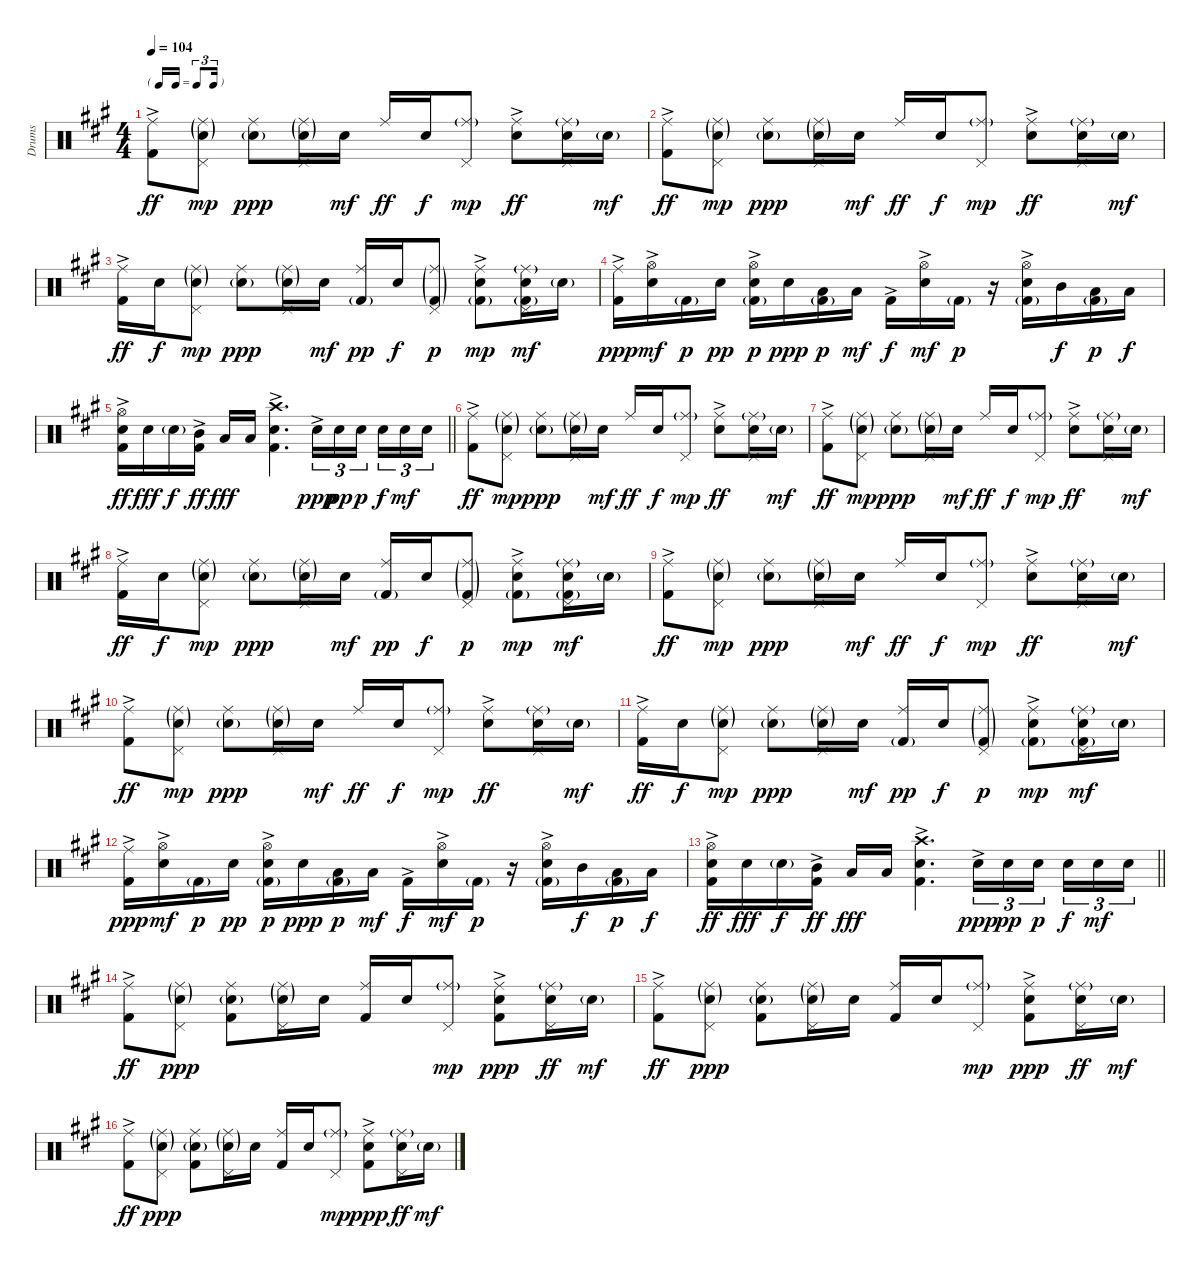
\track ("Drums" "Drums") {instrument percussion}
\staff {score}
\articulation defaults
\ts (4 4)
\tf triplet16th
\tempo 104
\clef neutral
\ks a
("Ride (middle)" "Kick (hit) 2"{ac}).8{dy ff} ("Ride (middle)"{g} "Pedal Hi-Hat (hit)" "Snare (hit) 2"{g}).8{dy mp} ("Ride (middle)" "Snare (hit) 2"{g}).8{dy ppp} ("Ride (middle)"{g} "Pedal Hi-Hat (hit)" "Snare (hit) 2"{g}).16 "Snare (hit) 2".16{dy mf} "Ride (middle)".16{dy ff} "Snare (hit) 2".16{dy f} ("Ride (middle)"{g} "Pedal Hi-Hat (hit)").8{dy mp} ("Ride (middle)" "Snare (hit) 2"{ac}).8{dy ff} ("Ride (middle)"{g} "Pedal Hi-Hat (hit)" "Snare (hit) 2").16 "Snare (hit) 2"{g}.16{dy mf} |
("Ride (middle)" "Kick (hit) 2"{ac}).8{dy ff} ("Ride (middle)"{g} "Pedal Hi-Hat (hit)" "Snare (hit) 2"{g}).8{dy mp} ("Ride (middle)" "Snare (hit) 2"{g}).8{dy ppp} ("Ride (middle)"{g} "Pedal Hi-Hat (hit)" "Snare (hit) 2"{g}).16 "Snare (hit) 2".16{dy mf} "Ride (middle)".16{dy ff} "Snare (hit) 2".16{dy f} ("Ride (middle)"{g} "Pedal Hi-Hat (hit)").8{dy mp} ("Ride (middle)" "Snare (hit) 2"{ac}).8{dy ff} ("Ride (middle)"{g} "Pedal Hi-Hat (hit)" "Snare (hit) 2").16 "Snare (hit) 2"{g}.16{dy mf} |
("Ride (middle)" "Kick (hit) 2"{ac}).16{dy ff} "Snare (hit) 2".16{dy f} ("Ride (middle)"{g} "Pedal Hi-Hat (hit)" "Snare (hit) 2"{g}).8{dy mp} ("Ride (middle)" "Snare (hit) 2"{g}).8{dy ppp} ("Ride (middle)"{g} "Pedal Hi-Hat (hit)" "Snare (hit) 2"{g}).16 "Snare (hit) 2".16{dy mf} ("Ride (middle)" "Kick (hit) 2"{g}).16{dy pp} "Snare (hit) 2".16{dy f} ("Ride (middle)"{g} "Pedal Hi-Hat (hit)" "Kick (hit) 2"{g}).8{dy p} ("Ride (middle)" "Snare (hit) 2"{ac} "Kick (hit) 2"{g}).8{dy mp} ("Ride (middle)"{g} "Pedal Hi-Hat (hit)" "Snare (hit) 2" "Kick (hit) 2"{g}).16{dy mf} "Snare (hit) 2"{g}.16 |
("Ride (middle)" "Kick (hit) 2"{ac}).16{dy ppp} ("Hi-Hat (open)" "Snare (hit) 2"{ac}).16{dy mf} "Kick (hit) 2"{g}.16{dy p} "Snare (hit) 2".16{dy pp} ("Hi-Hat (open)" "Snare (hit) 2"{ac} "Kick (hit) 2"{g}).16{dy p} "Snare (hit) 2".16{dy ppp} ("Low Tom (hit)" "Kick (hit) 2"{g}).16{dy p} "Low Floor Tom (hit)".16{dy mf} "Kick (hit) 2"{ac}.16{dy f} ("Hi-Hat (open)" "Snare (hit) 2"{ac}).16{dy mf} "Kick (hit) 2"{g}.16{dy p} r.16 ("Hi-Hat (open)" "Snare (hit) 2"{ac} "Kick (hit) 2"{g}).16 "Mid Tom (hit)".16{dy f} ("Low Tom (hit)" "Kick (hit) 2"{g}).16{dy p} "Low Floor Tom (hit)".16{dy f} |
\barLineRight lightlight
("Hi-Hat (open)" "Snare (hit) 2" "Kick (hit) 2"{ac}).16{dy ff} "Snare (hit) 2".16{dy fff} "Snare (hit) 2"{g}.16{dy f} ("Mid Tom (hit)" "Kick (hit) 2"{ac}).16{dy ff} "Low Tom (hit)".16{dy fff} "Low Floor Tom (hit)".16 ("Crash high (hit)" "Snare (hit) 2" "Kick (hit) 2"{ac}).4{d} "Snare (hit) 2"{ac}.16{tu (3 2) dy ppp} "Snare (hit) 2".16{tu (3 2) dy pp} "Snare (hit) 2".16{tu (3 2) dy p beam splitsecondary} "Snare (hit) 2".16{tu (3 2) dy f} "Snare (hit) 2".16{tu (3 2) dy mf} "Snare (hit) 2".16{tu (3 2)} |
("Ride (middle)" "Kick (hit) 2"{ac}).8{dy ff} ("Ride (middle)"{g} "Pedal Hi-Hat (hit)" "Snare (hit) 2"{g}).8{dy mp} ("Ride (middle)" "Snare (hit) 2"{g}).8{dy ppp} ("Ride (middle)"{g} "Pedal Hi-Hat (hit)" "Snare (hit) 2"{g}).16 "Snare (hit) 2".16{dy mf} "Ride (middle)".16{dy ff} "Snare (hit) 2".16{dy f} ("Ride (middle)"{g} "Pedal Hi-Hat (hit)").8{dy mp} ("Ride (middle)" "Snare (hit) 2"{ac}).8{dy ff} ("Ride (middle)"{g} "Pedal Hi-Hat (hit)" "Snare (hit) 2").16 "Snare (hit) 2"{g}.16{dy mf} |
("Ride (middle)" "Kick (hit) 2"{ac}).8{dy ff} ("Ride (middle)"{g} "Pedal Hi-Hat (hit)" "Snare (hit) 2"{g}).8{dy mp} ("Ride (middle)" "Snare (hit) 2"{g}).8{dy ppp} ("Ride (middle)"{g} "Pedal Hi-Hat (hit)" "Snare (hit) 2"{g}).16 "Snare (hit) 2".16{dy mf} "Ride (middle)".16{dy ff} "Snare (hit) 2".16{dy f} ("Ride (middle)"{g} "Pedal Hi-Hat (hit)").8{dy mp} ("Ride (middle)" "Snare (hit) 2"{ac}).8{dy ff} ("Ride (middle)"{g} "Pedal Hi-Hat (hit)" "Snare (hit) 2").16 "Snare (hit) 2"{g}.16{dy mf} |
("Ride (middle)" "Kick (hit) 2"{ac}).16{dy ff} "Snare (hit) 2".16{dy f} ("Ride (middle)"{g} "Pedal Hi-Hat (hit)" "Snare (hit) 2"{g}).8{dy mp} ("Ride (middle)" "Snare (hit) 2"{g}).8{dy ppp} ("Ride (middle)"{g} "Pedal Hi-Hat (hit)" "Snare (hit) 2"{g}).16 "Snare (hit) 2".16{dy mf} ("Ride (middle)" "Kick (hit) 2"{g}).16{dy pp} "Snare (hit) 2".16{dy f} ("Ride (middle)"{g} "Pedal Hi-Hat (hit)" "Kick (hit) 2"{g}).8{dy p} ("Ride (middle)" "Snare (hit) 2"{ac} "Kick (hit) 2"{g}).8{dy mp} ("Ride (middle)"{g} "Pedal Hi-Hat (hit)" "Snare (hit) 2" "Kick (hit) 2"{g}).16{dy mf} "Snare (hit) 2"{g}.16 |
("Ride (middle)" "Kick (hit) 2"{ac}).8{dy ff} ("Ride (middle)"{g} "Pedal Hi-Hat (hit)" "Snare (hit) 2"{g}).8{dy mp} ("Ride (middle)" "Snare (hit) 2"{g}).8{dy ppp} ("Ride (middle)"{g} "Pedal Hi-Hat (hit)" "Snare (hit) 2"{g}).16 "Snare (hit) 2".16{dy mf} "Ride (middle)".16{dy ff} "Snare (hit) 2".16{dy f} ("Ride (middle)"{g} "Pedal Hi-Hat (hit)").8{dy mp} ("Ride (middle)" "Snare (hit) 2"{ac}).8{dy ff} ("Ride (middle)"{g} "Pedal Hi-Hat (hit)" "Snare (hit) 2").16 "Snare (hit) 2"{g}.16{dy mf} |
("Ride (middle)" "Kick (hit) 2"{ac}).8{dy ff} ("Ride (middle)"{g} "Pedal Hi-Hat (hit)" "Snare (hit) 2"{g}).8{dy mp} ("Ride (middle)" "Snare (hit) 2"{g}).8{dy ppp} ("Ride (middle)"{g} "Pedal Hi-Hat (hit)" "Snare (hit) 2"{g}).16 "Snare (hit) 2".16{dy mf} "Ride (middle)".16{dy ff} "Snare (hit) 2".16{dy f} ("Ride (middle)"{g} "Pedal Hi-Hat (hit)").8{dy mp} ("Ride (middle)" "Snare (hit) 2"{ac}).8{dy ff} ("Ride (middle)"{g} "Pedal Hi-Hat (hit)" "Snare (hit) 2").16 "Snare (hit) 2"{g}.16{dy mf} |
("Ride (middle)" "Kick (hit) 2"{ac}).16{dy ff} "Snare (hit) 2".16{dy f} ("Ride (middle)"{g} "Pedal Hi-Hat (hit)" "Snare (hit) 2"{g}).8{dy mp} ("Ride (middle)" "Snare (hit) 2"{g}).8{dy ppp} ("Ride (middle)"{g} "Pedal Hi-Hat (hit)" "Snare (hit) 2"{g}).16 "Snare (hit) 2".16{dy mf} ("Ride (middle)" "Kick (hit) 2"{g}).16{dy pp} "Snare (hit) 2".16{dy f} ("Ride (middle)"{g} "Pedal Hi-Hat (hit)" "Kick (hit) 2"{g}).8{dy p} ("Ride (middle)" "Snare (hit) 2"{ac} "Kick (hit) 2"{g}).8{dy mp} ("Ride (middle)"{g} "Pedal Hi-Hat (hit)" "Snare (hit) 2" "Kick (hit) 2"{g}).16{dy mf} "Snare (hit) 2"{g}.16 |
("Ride (middle)" "Kick (hit) 2"{ac}).16{dy ppp} ("Hi-Hat (open)" "Snare (hit) 2"{ac}).16{dy mf} "Kick (hit) 2"{g}.16{dy p} "Snare (hit) 2".16{dy pp} ("Hi-Hat (open)" "Snare (hit) 2"{ac} "Kick (hit) 2"{g}).16{dy p} "Snare (hit) 2".16{dy ppp} ("Low Tom (hit)" "Kick (hit) 2"{g}).16{dy p} "Low Floor Tom (hit)".16{dy mf} "Kick (hit) 2"{ac}.16{dy f} ("Hi-Hat (open)" "Snare (hit) 2"{ac}).16{dy mf} "Kick (hit) 2"{g}.16{dy p} r.16 ("Hi-Hat (open)" "Snare (hit) 2"{ac} "Kick (hit) 2"{g}).16 "Mid Tom (hit)".16{dy f} ("Low Tom (hit)" "Kick (hit) 2"{g}).16{dy p} "Low Floor Tom (hit)".16{dy f} |
\barLineRight lightlight
("Hi-Hat (open)" "Snare (hit) 2" "Kick (hit) 2"{ac}).16{dy ff} "Snare (hit) 2".16{dy fff} "Snare (hit) 2"{g}.16{dy f} ("Mid Tom (hit)" "Kick (hit) 2"{ac}).16{dy ff} "Low Tom (hit)".16{dy fff} "Low Floor Tom (hit)".16 ("Crash high (hit)" "Snare (hit) 2" "Kick (hit) 2"{ac}).4{d} "Snare (hit) 2"{ac}.16{tu (3 2) dy ppp} "Snare (hit) 2".16{tu (3 2) dy pp} "Snare (hit) 2".16{tu (3 2) dy p beam splitsecondary} "Snare (hit) 2".16{tu (3 2) dy f} "Snare (hit) 2".16{tu (3 2) dy mf} "Snare (hit) 2".16{tu (3 2)} |
("Ride (middle)" "Kick (hit) 2"{ac}).8{dy ff} ("Ride (middle)"{g} "Pedal Hi-Hat (hit)" "Snare (hit) 2"{g}).8{dy ppp} ("Ride (middle)" "Snare (hit) 2"{g} "Kick (hit) 2").8 ("Ride (middle)"{g} "Pedal Hi-Hat (hit)" "Snare (hit) 2"{g}).16 "Snare (hit) 2".16 ("Ride (middle)" "Kick (hit) 2").16 "Snare (hit) 2".16 ("Ride (middle)"{g} "Pedal Hi-Hat (hit)").8{dy mp} ("Ride (middle)" "Snare (hit) 2"{ac} "Kick (hit) 2").8{dy ppp} ("Ride (middle)"{g} "Pedal Hi-Hat (hit)" "Snare (hit) 2").16{dy ff} "Snare (hit) 2"{g}.16{dy mf} |
("Ride (middle)" "Kick (hit) 2"{ac}).8{dy ff} ("Ride (middle)"{g} "Pedal Hi-Hat (hit)" "Snare (hit) 2"{g}).8{dy ppp} ("Ride (middle)" "Snare (hit) 2"{g} "Kick (hit) 2").8 ("Ride (middle)"{g} "Pedal Hi-Hat (hit)" "Snare (hit) 2"{g}).16 "Snare (hit) 2".16 ("Ride (middle)" "Kick (hit) 2").16 "Snare (hit) 2".16 ("Ride (middle)"{g} "Pedal Hi-Hat (hit)").8{dy mp} ("Ride (middle)" "Snare (hit) 2"{ac} "Kick (hit) 2").8{dy ppp} ("Ride (middle)"{g} "Pedal Hi-Hat (hit)" "Snare (hit) 2").16{dy ff} "Snare (hit) 2"{g}.16{dy mf} |
("Ride (middle)" "Kick (hit) 2"{ac}).8{dy ff} ("Ride (middle)"{g} "Pedal Hi-Hat (hit)" "Snare (hit) 2"{g}).8{dy ppp} ("Ride (middle)" "Snare (hit) 2"{g} "Kick (hit) 2").8 ("Ride (middle)"{g} "Pedal Hi-Hat (hit)" "Snare (hit) 2"{g}).16 "Snare (hit) 2".16 ("Ride (middle)" "Kick (hit) 2").16 "Snare (hit) 2".16 ("Ride (middle)"{g} "Pedal Hi-Hat (hit)").8{dy mp} ("Ride (middle)" "Snare (hit) 2"{ac} "Kick (hit) 2").8{dy ppp} ("Ride (middle)"{g} "Pedal Hi-Hat (hit)" "Snare (hit) 2").16{dy ff} "Snare (hit) 2"{g}.16{dy mf}
